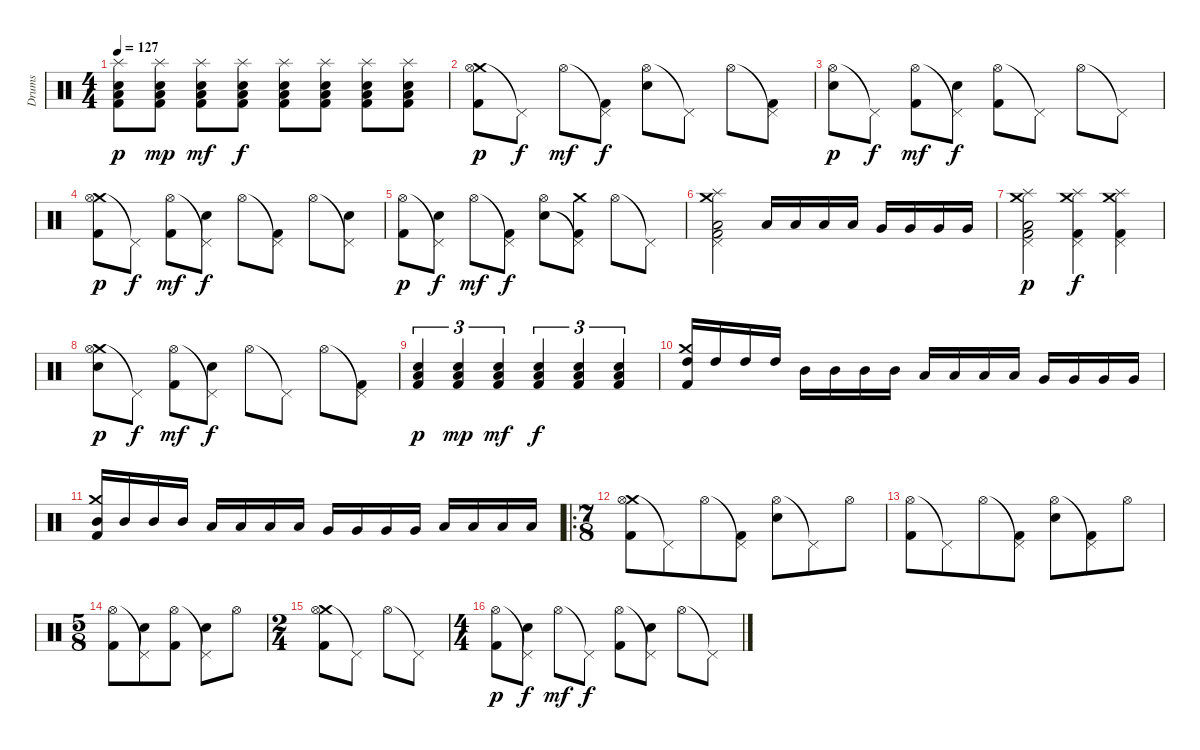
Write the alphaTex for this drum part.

\track ("Drums" "Drums") {instrument percussion}
\staff {score}
\articulation defaults
\ts (4 4)
\tempo 127
\clef neutral
\ks c
("Splash (hit)" "Low Tom (hit)" "Electric Snare (hit)" "Kick (hit) 2").8{dy p} ("Splash (hit)" "Low Tom (hit)" "Electric Snare (hit)" "Kick (hit) 2").8{dy mp} ("Splash (hit)" "Low Tom (hit)" "Electric Snare (hit)" "Kick (hit) 2").8{dy mf} ("Splash (hit)" "Low Tom (hit)" "Electric Snare (hit)" "Kick (hit) 2").8{dy f} ("Splash (hit)" "Low Tom (hit)" "Electric Snare (hit)" "Kick (hit) 2").8 ("Splash (hit)" "Low Tom (hit)" "Electric Snare (hit)" "Kick (hit) 2").8 ("Splash (hit)" "Low Tom (hit)" "Electric Snare (hit)" "Kick (hit) 2").8 ("Splash (hit)" "Low Tom (hit)" "Electric Snare (hit)" "Kick (hit) 2").8 |
("Crash medium (hit)" "Hi-Hat (open)" "Kick (hit) 2").8{dy p} "Pedal Hi-Hat (hit)"{t}.8{dy f} "Hi-Hat (open)".8{dy mf} ("Pedal Hi-Hat (hit)"{t} "Kick (hit) 2").8{dy f} ("Hi-Hat (open)" "Electric Snare (hit)").8 "Pedal Hi-Hat (hit)"{t}.8 "Hi-Hat (open)".8 ("Pedal Hi-Hat (hit)"{t} "Kick (hit) 2").8 |
("Hi-Hat (open)" "Electric Snare (hit)").8{dy p} "Pedal Hi-Hat (hit)"{t}.8{dy f} ("Hi-Hat (open)" "Kick (hit) 2").8{dy mf} ("Pedal Hi-Hat (hit)"{t} "Electric Snare (hit)").8{dy f} ("Hi-Hat (open)" "Kick (hit) 2").8 "Pedal Hi-Hat (hit)"{t}.8 "Hi-Hat (open)".8 "Pedal Hi-Hat (hit)"{t}.8 |
("Crash medium (hit)" "Hi-Hat (open)" "Kick (hit) 2").8{dy p} "Pedal Hi-Hat (hit)"{t}.8{dy f} ("Hi-Hat (open)" "Kick (hit) 2").8{dy mf} ("Pedal Hi-Hat (hit)"{t} "Electric Snare (hit)").8{dy f} "Hi-Hat (open)".8 ("Pedal Hi-Hat (hit)"{t} "Kick (hit) 2").8 "Hi-Hat (open)".8 ("Pedal Hi-Hat (hit)"{t} "Electric Snare (hit)").8 |
("Hi-Hat (open)" "Kick (hit) 2").8{dy p} ("Pedal Hi-Hat (hit)"{t} "Electric Snare (hit)").8{dy f} "Hi-Hat (open)".8{dy mf} ("Pedal Hi-Hat (hit)"{t} "Kick (hit) 2").8{dy f} ("Hi-Hat (open)" "Electric Snare (hit)").8 ("Crash medium (hit)" "Pedal Hi-Hat (hit)"{t} "Kick (hit) 2").8 "Hi-Hat (open)".8 "Pedal Hi-Hat (hit)"{t}.8 |
("Crash medium (hit)" "Splash (hit)" "Pedal Hi-Hat (hit)" "Low Tom (hit)" "Kick (hit) 2").2 "Low Tom (hit)".16 "Low Tom (hit)".16 "Low Tom (hit)".16 "Low Tom (hit)".16 "Very Low Tom (hit)".16 "Very Low Tom (hit)".16 "Very Low Tom (hit)".16 "Very Low Tom (hit)".16 |
("Crash medium (hit)" "Splash (hit)" "Pedal Hi-Hat (hit)" "Low Tom (hit)" "Kick (hit) 2").2{dy p} ("Crash medium (hit)" "Splash (hit)" "Pedal Hi-Hat (hit)" "Kick (hit) 2").4{dy f} ("Crash medium (hit)" "Splash (hit)" "Pedal Hi-Hat (hit)" "Kick (hit) 2").4 |
("Crash medium (hit)" "Hi-Hat (open)" "Electric Snare (hit)").8{dy p} "Pedal Hi-Hat (hit)"{t}.8{dy f} ("Hi-Hat (open)" "Kick (hit) 2").8{dy mf} ("Pedal Hi-Hat (hit)"{t} "Electric Snare (hit)").8{dy f} "Hi-Hat (open)".8 "Pedal Hi-Hat (hit)"{t}.8 "Hi-Hat (open)".8 ("Pedal Hi-Hat (hit)"{t} "Kick (hit) 2").8 |
("Low Tom (hit)" "Electric Snare (hit)" "Kick (hit) 2").4{tu (3 2) dy p} ("Low Tom (hit)" "Electric Snare (hit)" "Kick (hit) 2").4{tu (3 2) dy mp} ("Low Tom (hit)" "Electric Snare (hit)" "Kick (hit) 2").4{tu (3 2) dy mf} ("Low Tom (hit)" "Electric Snare (hit)" "Kick (hit) 2").4{tu (3 2) dy f} ("Low Tom (hit)" "Electric Snare (hit)" "Kick (hit) 2").4{tu (3 2)} ("Low Tom (hit)" "Electric Snare (hit)" "Kick (hit) 2").4{tu (3 2)} |
("Crash medium (hit)" "High Tom (hit)" "Kick (hit) 2").16 "High Tom (hit)".16 "High Tom (hit)".16 "High Tom (hit)".16 "Mid Tom (hit)".16 "Mid Tom (hit)".16 "Mid Tom (hit)".16 "Mid Tom (hit)".16 "Low Tom (hit)".16 "Low Tom (hit)".16 "Low Tom (hit)".16 "Low Tom (hit)".16 "Very Low Tom (hit)".16 "Very Low Tom (hit)".16 "Very Low Tom (hit)".16 "Very Low Tom (hit)".16 |
("Crash medium (hit)" "Mid Tom (hit)" "Kick (hit) 2").16 "Mid Tom (hit)".16 "Mid Tom (hit)".16 "Mid Tom (hit)".16 "Low Tom (hit)".16 "Low Tom (hit)".16 "Low Tom (hit)".16 "Low Tom (hit)".16 "Very Low Tom (hit)".16 "Very Low Tom (hit)".16 "Very Low Tom (hit)".16 "Very Low Tom (hit)".16 "Low Floor Tom (hit)".16 "Low Floor Tom (hit)".16 "Low Floor Tom (hit)".16 "Low Floor Tom (hit)".16 |
\ro
\ts (7 8)
("Crash medium (hit)" "Hi-Hat (open)" "Kick (hit) 2").8 "Pedal Hi-Hat (hit)"{t}.8 "Hi-Hat (open)".8 ("Pedal Hi-Hat (hit)"{t} "Kick (hit) 2").8 ("Hi-Hat (open)" "Electric Snare (hit)").8 "Pedal Hi-Hat (hit)"{t}.8 "Hi-Hat (open)".8 |
("Hi-Hat (open)" "Kick (hit) 2").8 "Pedal Hi-Hat (hit)"{t}.8 "Hi-Hat (open)".8 ("Pedal Hi-Hat (hit)"{t} "Kick (hit) 2").8 ("Hi-Hat (open)" "Electric Snare (hit)").8 ("Pedal Hi-Hat (hit)"{t} "Kick (hit) 2").8 "Hi-Hat (open)".8 |
\ts (5 8)
("Hi-Hat (open)" "Kick (hit) 2").8 ("Pedal Hi-Hat (hit)"{t} "Electric Snare (hit)").8 ("Hi-Hat (open)" "Kick (hit) 2").8 ("Pedal Hi-Hat (hit)"{t} "Electric Snare (hit)").8 "Hi-Hat (open)".8 |
\ts (2 4)
("Crash medium (hit)" "Hi-Hat (open)" "Kick (hit) 2").8 "Pedal Hi-Hat (hit)"{t}.8 "Hi-Hat (open)".8 "Pedal Hi-Hat (hit)"{t}.8 |
\ts (4 4)
("Hi-Hat (open)" "Kick (hit) 2").8{dy p} ("Pedal Hi-Hat (hit)"{t} "Electric Snare (hit)").8{dy f} "Hi-Hat (open)".8{dy mf} "Pedal Hi-Hat (hit)"{t}.8{dy f} ("Hi-Hat (open)" "Kick (hit) 2").8 ("Pedal Hi-Hat (hit)"{t} "Electric Snare (hit)").8 "Hi-Hat (open)".8 "Pedal Hi-Hat (hit)"{t}.8
